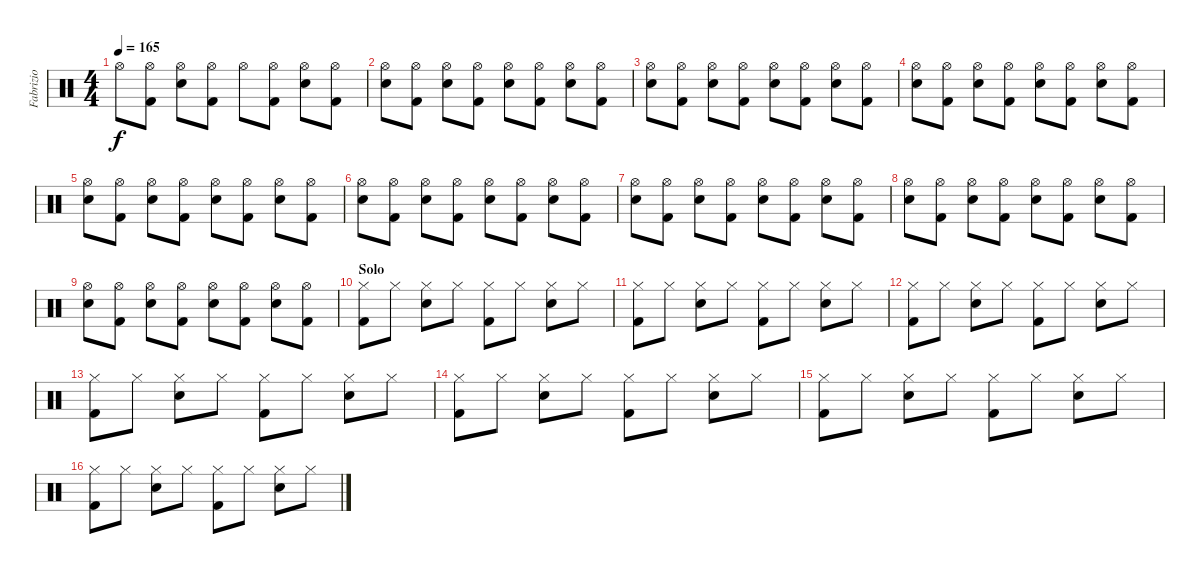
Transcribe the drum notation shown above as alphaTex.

\track ("Fabrizio" "Fabrizio") {instrument percussion}
\staff {score}
\articulation defaults
\ts (4 4)
\tempo 165
\clef neutral
\ks c "Hi-Hat (open)".8{dy f}
("Hi-Hat (open)" "Kick (hit) 2").8 ("Hi-Hat (open)" "Snare (hit) 2").8 ("Hi-Hat (open)" "Kick (hit) 2").8 "Hi-Hat (open)".8 ("Hi-Hat (open)" "Kick (hit) 2").8 ("Hi-Hat (open)" "Snare (hit) 2").8 ("Hi-Hat (open)" "Kick (hit) 2").8 |
("Snare (hit) 2" "Hi-Hat (open)").8 ("Kick (hit) 2" "Hi-Hat (open)").8 ("Snare (hit) 2" "Hi-Hat (open)").8 ("Kick (hit) 2" "Hi-Hat (open)").8 ("Hi-Hat (open)" "Snare (hit) 2").8 ("Hi-Hat (open)" "Kick (hit) 2").8 ("Hi-Hat (open)" "Snare (hit) 2").8 ("Hi-Hat (open)" "Kick (hit) 2").8 |
("Hi-Hat (open)" "Snare (hit) 2").8 ("Hi-Hat (open)" "Kick (hit) 2").8 ("Hi-Hat (open)" "Snare (hit) 2").8 ("Hi-Hat (open)" "Kick (hit) 2").8 ("Hi-Hat (open)" "Snare (hit) 2").8 ("Hi-Hat (open)" "Kick (hit) 2").8 ("Hi-Hat (open)" "Snare (hit) 2").8 ("Hi-Hat (open)" "Kick (hit) 2").8 |
("Hi-Hat (open)" "Snare (hit) 2").8 ("Hi-Hat (open)" "Kick (hit) 2").8 ("Hi-Hat (open)" "Snare (hit) 2").8 ("Hi-Hat (open)" "Kick (hit) 2").8 ("Hi-Hat (open)" "Snare (hit) 2").8 ("Hi-Hat (open)" "Kick (hit) 2").8 ("Hi-Hat (open)" "Snare (hit) 2").8 ("Hi-Hat (open)" "Kick (hit) 2").8 |
("Hi-Hat (open)" "Snare (hit) 2").8 ("Hi-Hat (open)" "Kick (hit) 2").8 ("Hi-Hat (open)" "Snare (hit) 2").8 ("Hi-Hat (open)" "Kick (hit) 2").8 ("Hi-Hat (open)" "Snare (hit) 2").8 ("Hi-Hat (open)" "Kick (hit) 2").8 ("Hi-Hat (open)" "Snare (hit) 2").8 ("Hi-Hat (open)" "Kick (hit) 2").8 |
("Hi-Hat (open)" "Snare (hit) 2").8 ("Hi-Hat (open)" "Kick (hit) 2").8 ("Hi-Hat (open)" "Snare (hit) 2").8 ("Hi-Hat (open)" "Kick (hit) 2").8 ("Hi-Hat (open)" "Snare (hit) 2").8 ("Hi-Hat (open)" "Kick (hit) 2").8 ("Hi-Hat (open)" "Snare (hit) 2").8 ("Hi-Hat (open)" "Kick (hit) 2").8 |
("Hi-Hat (open)" "Snare (hit) 2").8 ("Hi-Hat (open)" "Kick (hit) 2").8 ("Hi-Hat (open)" "Snare (hit) 2").8 ("Hi-Hat (open)" "Kick (hit) 2").8 ("Hi-Hat (open)" "Snare (hit) 2").8 ("Hi-Hat (open)" "Kick (hit) 2").8 ("Hi-Hat (open)" "Snare (hit) 2").8 ("Hi-Hat (open)" "Kick (hit) 2").8 |
("Hi-Hat (open)" "Snare (hit) 2").8 ("Hi-Hat (open)" "Kick (hit) 2").8 ("Hi-Hat (open)" "Snare (hit) 2").8 ("Hi-Hat (open)" "Kick (hit) 2").8 ("Hi-Hat (open)" "Snare (hit) 2").8 ("Hi-Hat (open)" "Kick (hit) 2").8 ("Hi-Hat (open)" "Snare (hit) 2").8 ("Hi-Hat (open)" "Kick (hit) 2").8 |
("Hi-Hat (open)" "Snare (hit) 2").8 ("Hi-Hat (open)" "Kick (hit) 2").8 ("Hi-Hat (open)" "Snare (hit) 2").8 ("Hi-Hat (open)" "Kick (hit) 2").8 ("Hi-Hat (open)" "Snare (hit) 2").8 ("Hi-Hat (open)" "Kick (hit) 2").8 ("Hi-Hat (open)" "Snare (hit) 2").8 ("Hi-Hat (open)" "Kick (hit) 2").8 |
\section ("" "Solo")
("Kick (hit) 2" "Hi-Hat (closed)").8 "Hi-Hat (closed)".8 ("Snare (hit) 2" "Hi-Hat (closed)").8 "Hi-Hat (closed)".8 ("Kick (hit) 2" "Hi-Hat (closed)").8 "Hi-Hat (closed)".8 ("Snare (hit) 2" "Hi-Hat (closed)").8 "Hi-Hat (closed)".8 |
("Hi-Hat (closed)" "Kick (hit) 2").8 "Hi-Hat (closed)".8 ("Hi-Hat (closed)" "Snare (hit) 2").8 "Hi-Hat (closed)".8 ("Hi-Hat (closed)" "Kick (hit) 2").8 "Hi-Hat (closed)".8 ("Hi-Hat (closed)" "Snare (hit) 2").8 "Hi-Hat (closed)".8 |
("Hi-Hat (closed)" "Kick (hit) 2").8 "Hi-Hat (closed)".8 ("Hi-Hat (closed)" "Snare (hit) 2").8 "Hi-Hat (closed)".8 ("Hi-Hat (closed)" "Kick (hit) 2").8 "Hi-Hat (closed)".8 ("Hi-Hat (closed)" "Snare (hit) 2").8 "Hi-Hat (closed)".8 |
("Hi-Hat (closed)" "Kick (hit) 2").8 "Hi-Hat (closed)".8 ("Hi-Hat (closed)" "Snare (hit) 2").8 "Hi-Hat (closed)".8 ("Hi-Hat (closed)" "Kick (hit) 2").8 "Hi-Hat (closed)".8 ("Hi-Hat (closed)" "Snare (hit) 2").8 "Hi-Hat (closed)".8 |
("Kick (hit) 2" "Hi-Hat (closed)").8 "Hi-Hat (closed)".8 ("Snare (hit) 2" "Hi-Hat (closed)").8 "Hi-Hat (closed)".8 ("Kick (hit) 2" "Hi-Hat (closed)").8 "Hi-Hat (closed)".8 ("Snare (hit) 2" "Hi-Hat (closed)").8 "Hi-Hat (closed)".8 |
("Kick (hit) 2" "Hi-Hat (closed)").8 "Hi-Hat (closed)".8 ("Snare (hit) 2" "Hi-Hat (closed)").8 "Hi-Hat (closed)".8 ("Kick (hit) 2" "Hi-Hat (closed)").8 "Hi-Hat (closed)".8 ("Snare (hit) 2" "Hi-Hat (closed)").8 "Hi-Hat (closed)".8 |
("Hi-Hat (closed)" "Kick (hit) 2").8 "Hi-Hat (closed)".8 ("Hi-Hat (closed)" "Snare (hit) 2").8 "Hi-Hat (closed)".8 ("Hi-Hat (closed)" "Kick (hit) 2").8 "Hi-Hat (closed)".8 ("Hi-Hat (closed)" "Snare (hit) 2").8 "Hi-Hat (closed)".8
